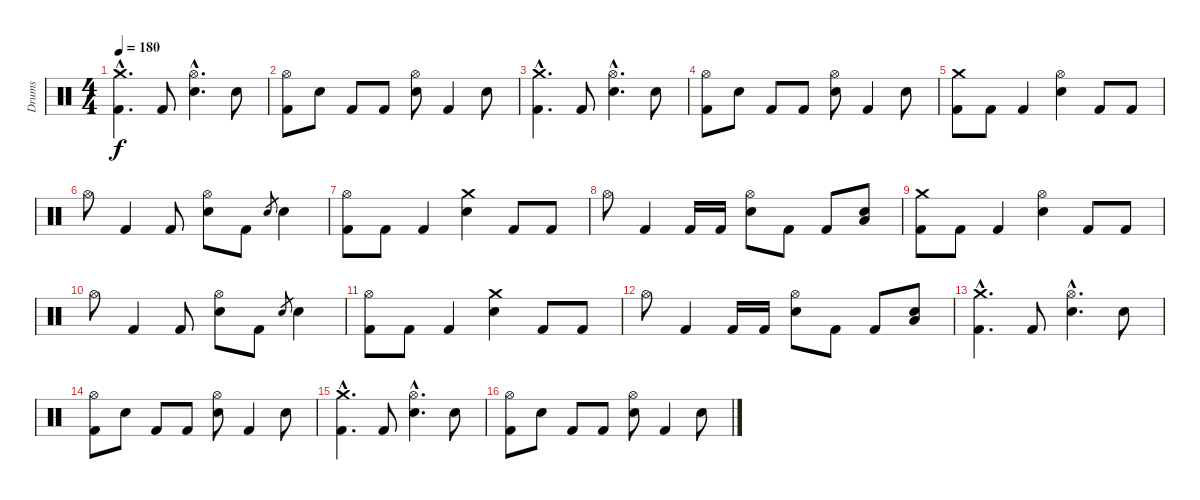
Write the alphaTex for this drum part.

\track ("Drums" "Drums") {instrument percussion}
\staff {score}
\articulation defaults
\ts (4 4)
\tempo 180
\clef neutral
\ks c
("Crash medium (hit)"{hac} "Kick (hit) 2"{hac}).4{d dy f} "Kick (hit) 2".8 ("Hi-Hat (open)"{hac} "Electric Snare (hit)"{hac}).4{d} "Electric Snare (hit)".8 |
("Hi-Hat (open)" "Kick (hit) 2").8 "Electric Snare (hit)".8 "Kick (hit) 2".8 "Kick (hit) 2".8 ("Hi-Hat (open)" "Electric Snare (hit)").8 "Kick (hit) 2".4 "Electric Snare (hit)".8 |
("Crash medium (hit)"{hac} "Kick (hit) 2"{hac}).4{d} "Kick (hit) 2".8 ("Hi-Hat (open)"{hac} "Electric Snare (hit)"{hac}).4{d} "Electric Snare (hit)".8 |
("Hi-Hat (open)" "Kick (hit) 2").8 "Electric Snare (hit)".8 "Kick (hit) 2".8 "Kick (hit) 2".8 ("Hi-Hat (open)" "Electric Snare (hit)").8 "Kick (hit) 2".4 "Electric Snare (hit)".8 |
("Crash medium (hit)" "Kick (hit) 2").8 "Kick (hit) 2".8 "Kick (hit) 2".4 ("Hi-Hat (open)" "Electric Snare (hit)").4 "Kick (hit) 2".8 "Kick (hit) 2".8 |
"Hi-Hat (open)".8 "Kick (hit) 2".4 "Kick (hit) 2".8 ("Hi-Hat (open)" "Electric Snare (hit)").8 "Kick (hit) 2".8 "Electric Snare (hit)".8{gr} "Electric Snare (hit)".4 |
("Hi-Hat (open)" "Kick (hit) 2").8 "Kick (hit) 2".8 "Kick (hit) 2".4 ("Crash medium (hit)" "Electric Snare (hit)").4 "Kick (hit) 2".8 "Kick (hit) 2".8 |
"Hi-Hat (open)".8 "Kick (hit) 2".4 "Kick (hit) 2".16 "Kick (hit) 2".16 ("Hi-Hat (open)" "Electric Snare (hit)").8 "Kick (hit) 2".8 "Kick (hit) 2".8 ("Electric Snare (hit)" "Low Tom (hit)").8 |
("Crash medium (hit)" "Kick (hit) 2").8 "Kick (hit) 2".8 "Kick (hit) 2".4 ("Hi-Hat (open)" "Electric Snare (hit)").4 "Kick (hit) 2".8 "Kick (hit) 2".8 |
"Hi-Hat (open)".8 "Kick (hit) 2".4 "Kick (hit) 2".8 ("Hi-Hat (open)" "Electric Snare (hit)").8 "Kick (hit) 2".8 "Electric Snare (hit)".8{gr} "Electric Snare (hit)".4 |
("Hi-Hat (open)" "Kick (hit) 2").8 "Kick (hit) 2".8 "Kick (hit) 2".4 ("Crash medium (hit)" "Electric Snare (hit)").4 "Kick (hit) 2".8 "Kick (hit) 2".8 |
"Hi-Hat (open)".8 "Kick (hit) 2".4 "Kick (hit) 2".16 "Kick (hit) 2".16 ("Hi-Hat (open)" "Electric Snare (hit)").8 "Kick (hit) 2".8 "Kick (hit) 2".8 ("Electric Snare (hit)" "Low Tom (hit)").8 |
("Crash medium (hit)"{hac} "Kick (hit) 2"{hac}).4{d} "Kick (hit) 2".8 ("Hi-Hat (open)"{hac} "Electric Snare (hit)"{hac}).4{d} "Electric Snare (hit)".8 |
("Hi-Hat (open)" "Kick (hit) 2").8 "Electric Snare (hit)".8 "Kick (hit) 2".8 "Kick (hit) 2".8 ("Hi-Hat (open)" "Electric Snare (hit)").8 "Kick (hit) 2".4 "Electric Snare (hit)".8 |
("Crash medium (hit)"{hac} "Kick (hit) 2"{hac}).4{d} "Kick (hit) 2".8 ("Hi-Hat (open)"{hac} "Electric Snare (hit)"{hac}).4{d} "Electric Snare (hit)".8 |
("Hi-Hat (open)" "Kick (hit) 2").8 "Electric Snare (hit)".8 "Kick (hit) 2".8 "Kick (hit) 2".8 ("Hi-Hat (open)" "Electric Snare (hit)").8 "Kick (hit) 2".4 "Electric Snare (hit)".8
